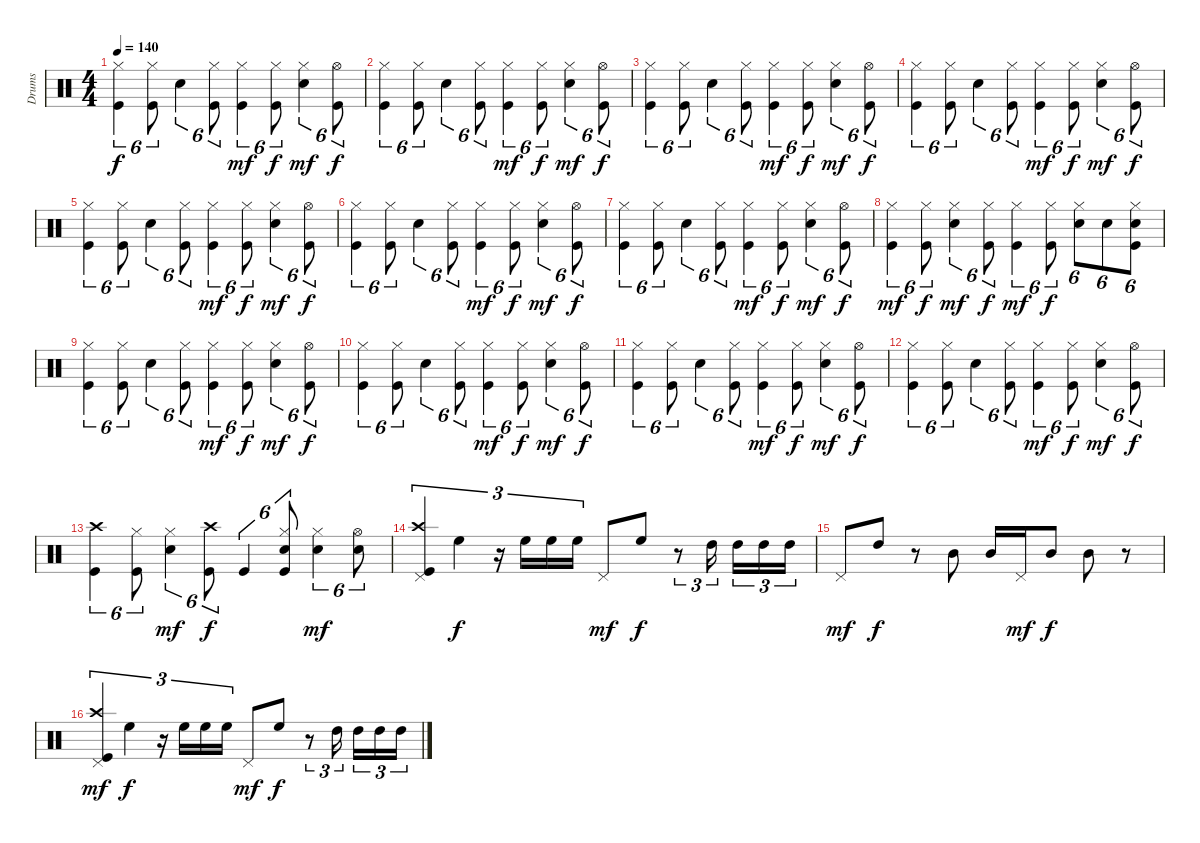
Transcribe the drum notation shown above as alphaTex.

\track ("Drums" "Drums") {instrument percussion}
\staff {score}
\articulation defaults
\ts (4 4)
\tempo 140
\clef neutral
\ks c
("Kick (hit)" "Hi-Hat (closed)").4{tu (6 4) dy f} ("Kick (hit)" "Hi-Hat (closed)").8{tu (6 4)} "Electric Snare (hit)".4{tu (6 4)} ("Kick (hit)" "Hi-Hat (closed)").8{tu (6 4)} ("Kick (hit)" "Hi-Hat (closed)").4{tu (6 4) dy mf} ("Kick (hit)" "Hi-Hat (closed)").8{tu (6 4) dy f} ("Electric Snare (hit)" "Hi-Hat (closed)").4{tu (6 4) dy mf} ("Kick (hit)" "Hi-Hat (open)").8{tu (6 4) dy f} |
("Kick (hit)" "Hi-Hat (closed)").4{tu (6 4)} ("Kick (hit)" "Hi-Hat (closed)").8{tu (6 4)} "Electric Snare (hit)".4{tu (6 4)} ("Kick (hit)" "Hi-Hat (closed)").8{tu (6 4)} ("Kick (hit)" "Hi-Hat (closed)").4{tu (6 4) dy mf} ("Kick (hit)" "Hi-Hat (closed)").8{tu (6 4) dy f} ("Electric Snare (hit)" "Hi-Hat (closed)").4{tu (6 4) dy mf} ("Kick (hit)" "Hi-Hat (open)").8{tu (6 4) dy f} |
("Kick (hit)" "Hi-Hat (closed)").4{tu (6 4)} ("Kick (hit)" "Hi-Hat (closed)").8{tu (6 4)} "Electric Snare (hit)".4{tu (6 4)} ("Kick (hit)" "Hi-Hat (closed)").8{tu (6 4)} ("Kick (hit)" "Hi-Hat (closed)").4{tu (6 4) dy mf} ("Kick (hit)" "Hi-Hat (closed)").8{tu (6 4) dy f} ("Electric Snare (hit)" "Hi-Hat (closed)").4{tu (6 4) dy mf} ("Kick (hit)" "Hi-Hat (open)").8{tu (6 4) dy f} |
("Kick (hit)" "Hi-Hat (closed)").4{tu (6 4)} ("Kick (hit)" "Hi-Hat (closed)").8{tu (6 4)} "Electric Snare (hit)".4{tu (6 4)} ("Kick (hit)" "Hi-Hat (closed)").8{tu (6 4)} ("Kick (hit)" "Hi-Hat (closed)").4{tu (6 4) dy mf} ("Kick (hit)" "Hi-Hat (closed)").8{tu (6 4) dy f} ("Electric Snare (hit)" "Hi-Hat (closed)").4{tu (6 4) dy mf} ("Kick (hit)" "Hi-Hat (open)").8{tu (6 4) dy f} |
("Kick (hit)" "Hi-Hat (closed)").4{tu (6 4)} ("Kick (hit)" "Hi-Hat (closed)").8{tu (6 4)} "Electric Snare (hit)".4{tu (6 4)} ("Kick (hit)" "Hi-Hat (closed)").8{tu (6 4)} ("Kick (hit)" "Hi-Hat (closed)").4{tu (6 4) dy mf} ("Kick (hit)" "Hi-Hat (closed)").8{tu (6 4) dy f} ("Electric Snare (hit)" "Hi-Hat (closed)").4{tu (6 4) dy mf} ("Kick (hit)" "Hi-Hat (open)").8{tu (6 4) dy f} |
("Kick (hit)" "Hi-Hat (closed)").4{tu (6 4)} ("Kick (hit)" "Hi-Hat (closed)").8{tu (6 4)} "Electric Snare (hit)".4{tu (6 4)} ("Kick (hit)" "Hi-Hat (closed)").8{tu (6 4)} ("Kick (hit)" "Hi-Hat (closed)").4{tu (6 4) dy mf} ("Kick (hit)" "Hi-Hat (closed)").8{tu (6 4) dy f} ("Electric Snare (hit)" "Hi-Hat (closed)").4{tu (6 4) dy mf} ("Kick (hit)" "Hi-Hat (open)").8{tu (6 4) dy f} |
("Kick (hit)" "Hi-Hat (closed)").4{tu (6 4)} ("Kick (hit)" "Hi-Hat (closed)").8{tu (6 4)} "Electric Snare (hit)".4{tu (6 4)} ("Kick (hit)" "Hi-Hat (closed)").8{tu (6 4)} ("Kick (hit)" "Hi-Hat (closed)").4{tu (6 4) dy mf} ("Kick (hit)" "Hi-Hat (closed)").8{tu (6 4) dy f} ("Electric Snare (hit)" "Hi-Hat (closed)").4{tu (6 4) dy mf} ("Kick (hit)" "Hi-Hat (open)").8{tu (6 4) dy f} |
("Kick (hit)" "Hi-Hat (closed)").4{tu (6 4) dy mf} ("Kick (hit)" "Hi-Hat (closed)").8{tu (6 4) dy f} ("Electric Snare (hit)" "Hi-Hat (closed)").4{tu (6 4) dy mf} ("Kick (hit)" "Hi-Hat (closed)").8{tu (6 4) dy f} ("Kick (hit)" "Hi-Hat (closed)").4{tu (6 4) dy mf} ("Kick (hit)" "Hi-Hat (closed)").8{tu (6 4) dy f} ("Electric Snare (hit)" "Hi-Hat (closed)").8{tu (6 4)} "Electric Snare (hit)".8{tu (6 4)} ("Kick (hit)" "Snare (hit) 2" "Hi-Hat (closed)").8{tu (6 4)} |
("Kick (hit)" "Hi-Hat (closed)").4{tu (6 4)} ("Kick (hit)" "Hi-Hat (closed)").8{tu (6 4)} "Electric Snare (hit)".4{tu (6 4)} ("Kick (hit)" "Hi-Hat (closed)").8{tu (6 4)} ("Kick (hit)" "Hi-Hat (closed)").4{tu (6 4) dy mf} ("Kick (hit)" "Hi-Hat (closed)").8{tu (6 4) dy f} ("Electric Snare (hit)" "Hi-Hat (closed)").4{tu (6 4) dy mf} ("Kick (hit)" "Hi-Hat (open)").8{tu (6 4) dy f} |
("Kick (hit)" "Hi-Hat (closed)").4{tu (6 4)} ("Kick (hit)" "Hi-Hat (closed)").8{tu (6 4)} "Electric Snare (hit)".4{tu (6 4)} ("Kick (hit)" "Hi-Hat (closed)").8{tu (6 4)} ("Kick (hit)" "Hi-Hat (closed)").4{tu (6 4) dy mf} ("Kick (hit)" "Hi-Hat (closed)").8{tu (6 4) dy f} ("Electric Snare (hit)" "Hi-Hat (closed)").4{tu (6 4) dy mf} ("Kick (hit)" "Hi-Hat (open)").8{tu (6 4) dy f} |
("Kick (hit)" "Hi-Hat (closed)").4{tu (6 4)} ("Kick (hit)" "Hi-Hat (closed)").8{tu (6 4)} "Electric Snare (hit)".4{tu (6 4)} ("Kick (hit)" "Hi-Hat (closed)").8{tu (6 4)} ("Kick (hit)" "Hi-Hat (closed)").4{tu (6 4) dy mf} ("Kick (hit)" "Hi-Hat (closed)").8{tu (6 4) dy f} ("Electric Snare (hit)" "Hi-Hat (closed)").4{tu (6 4) dy mf} ("Kick (hit)" "Hi-Hat (open)").8{tu (6 4) dy f} |
("Kick (hit)" "Hi-Hat (closed)").4{tu (6 4)} ("Kick (hit)" "Hi-Hat (closed)").8{tu (6 4)} "Electric Snare (hit)".4{tu (6 4)} ("Kick (hit)" "Hi-Hat (closed)").8{tu (6 4)} ("Kick (hit)" "Hi-Hat (closed)").4{tu (6 4) dy mf} ("Kick (hit)" "Hi-Hat (closed)").8{tu (6 4) dy f} ("Electric Snare (hit)" "Hi-Hat (closed)").4{tu (6 4) dy mf} ("Kick (hit)" "Hi-Hat (open)").8{tu (6 4) dy f} |
("Kick (hit)" "Crash high (hit)").4{tu (6 4)} ("Kick (hit)" "Hi-Hat (closed)").8{tu (6 4)} ("Electric Snare (hit)" "Hi-Hat (closed)").4{tu (6 4) dy mf} ("Kick (hit)" "Crash high (hit)").8{tu (6 4) dy f} "Kick (hit)".4{tu (6 4)} ("Kick (hit)" "Snare (hit) 2" "Hi-Hat (closed)").8{tu (6 4)} ("Electric Snare (hit)" "Hi-Hat (closed)").4{tu (6 4) dy mf} ("Electric Snare (hit)" "Hi-Hat (open)").8{tu (6 4)} |
("Kick (hit)" "Pedal Hi-Hat (hit)" "Crash high (hit)").4{tu (3 2)} "High Floor Tom (hit)".4{tu (3 2) dy f} r.16{tu (3 2)} "High Floor Tom (hit)".16{tu (3 2)} "High Floor Tom (hit)".16{tu (3 2)} "High Floor Tom (hit)".16{tu (3 2)} "Pedal Hi-Hat (hit)".8{dy mf} "High Floor Tom (hit)".8{dy f} r.8{tu (3 2)} "High Tom (hit)".16{tu (3 2)} "High Tom (hit)".16{tu (3 2)} "High Tom (hit)".16{tu (3 2)} "High Tom (hit)".16{tu (3 2)} |
"Pedal Hi-Hat (hit)".8{dy mf} "High Tom (hit)".8{dy f} r.8 "Mid Tom (hit)".8 "Mid Tom (hit)".16 "Pedal Hi-Hat (hit)".16{dy mf} "Mid Tom (hit)".8{dy f} "Mid Tom (hit)".8 r.8 |
("Kick (hit)" "Pedal Hi-Hat (hit)" "Crash high (hit)").4{tu (3 2) dy mf} "High Floor Tom (hit)".4{tu (3 2) dy f} r.16{tu (3 2)} "High Floor Tom (hit)".16{tu (3 2)} "High Floor Tom (hit)".16{tu (3 2)} "High Floor Tom (hit)".16{tu (3 2)} "Pedal Hi-Hat (hit)".8{dy mf} "High Floor Tom (hit)".8{dy f} r.8{tu (3 2)} "High Tom (hit)".16{tu (3 2)} "High Tom (hit)".16{tu (3 2)} "High Tom (hit)".16{tu (3 2)} "High Tom (hit)".16{tu (3 2)}
